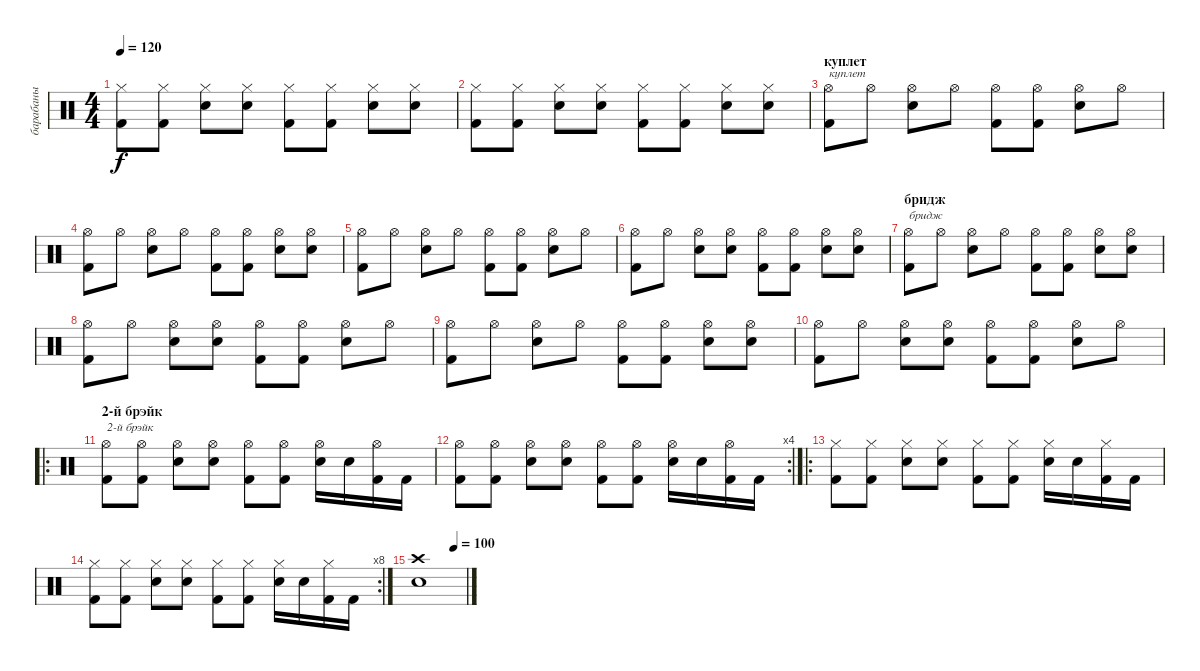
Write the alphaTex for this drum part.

\track ("барабаны" "барабаны") {instrument percussion}
\staff {score}
\articulation defaults
\ts (4 4)
\tempo 120
\clef neutral
\ks c
("Hi-Hat (closed)" "Kick (hit) 2").8{dy f} ("Hi-Hat (closed)" "Kick (hit) 2").8 ("Hi-Hat (closed)" "Snare (hit) 2").8 ("Hi-Hat (closed)" "Snare (hit) 2").8 ("Hi-Hat (closed)" "Kick (hit) 2").8 ("Hi-Hat (closed)" "Kick (hit) 2").8 ("Hi-Hat (closed)" "Snare (hit) 2").8 ("Hi-Hat (closed)" "Snare (hit) 2").8 |
("Hi-Hat (closed)" "Kick (hit) 2").8 ("Hi-Hat (closed)" "Kick (hit) 2").8 ("Hi-Hat (closed)" "Snare (hit) 2").8 ("Hi-Hat (closed)" "Snare (hit) 2").8 ("Hi-Hat (closed)" "Kick (hit) 2").8 ("Hi-Hat (closed)" "Kick (hit) 2").8 ("Hi-Hat (closed)" "Snare (hit) 2").8 ("Hi-Hat (closed)" "Snare (hit) 2").8 |
\section ("" "куплет")
("Hi-Hat (open)" "Kick (hit) 2").8{txt "куплет"} "Hi-Hat (open)".8 ("Hi-Hat (open)" "Snare (hit) 2").8 "Hi-Hat (open)".8 ("Hi-Hat (open)" "Kick (hit) 2").8 ("Hi-Hat (open)" "Kick (hit) 2").8 ("Hi-Hat (open)" "Snare (hit) 2").8 "Hi-Hat (open)".8 |
("Hi-Hat (open)" "Kick (hit) 2").8 "Hi-Hat (open)".8 ("Hi-Hat (open)" "Snare (hit) 2").8 "Hi-Hat (open)".8 ("Hi-Hat (open)" "Kick (hit) 2").8 ("Hi-Hat (open)" "Kick (hit) 2").8 ("Hi-Hat (open)" "Snare (hit) 2").8 ("Hi-Hat (open)" "Snare (hit) 2").8 |
("Hi-Hat (open)" "Kick (hit) 2").8 "Hi-Hat (open)".8 ("Hi-Hat (open)" "Snare (hit) 2").8 "Hi-Hat (open)".8 ("Hi-Hat (open)" "Kick (hit) 2").8 ("Hi-Hat (open)" "Kick (hit) 2").8 ("Hi-Hat (open)" "Snare (hit) 2").8 "Hi-Hat (open)".8 |
("Hi-Hat (open)" "Kick (hit) 2").8 "Hi-Hat (open)".8 ("Hi-Hat (open)" "Snare (hit) 2").8 ("Hi-Hat (open)" "Snare (hit) 2").8 ("Hi-Hat (open)" "Kick (hit) 2").8 ("Hi-Hat (open)" "Kick (hit) 2").8 ("Hi-Hat (open)" "Snare (hit) 2").8 ("Hi-Hat (open)" "Snare (hit) 2").8 |
\section ("" "бридж")
("Hi-Hat (open)" "Kick (hit) 2").8{txt "бридж"} "Hi-Hat (open)".8 ("Hi-Hat (open)" "Snare (hit) 2").8 "Hi-Hat (open)".8 ("Hi-Hat (open)" "Kick (hit) 2").8 ("Hi-Hat (open)" "Kick (hit) 2").8 ("Hi-Hat (open)" "Snare (hit) 2").8 ("Hi-Hat (open)" "Snare (hit) 2").8 |
("Hi-Hat (open)" "Kick (hit) 2").8 "Hi-Hat (open)".8 ("Hi-Hat (open)" "Snare (hit) 2").8 ("Hi-Hat (open)" "Snare (hit) 2").8 ("Hi-Hat (open)" "Kick (hit) 2").8 ("Hi-Hat (open)" "Kick (hit) 2").8 ("Hi-Hat (open)" "Snare (hit) 2").8 "Hi-Hat (open)".8 |
("Hi-Hat (open)" "Kick (hit) 2").8 "Hi-Hat (open)".8 ("Hi-Hat (open)" "Snare (hit) 2").8 "Hi-Hat (open)".8 ("Hi-Hat (open)" "Kick (hit) 2").8 ("Hi-Hat (open)" "Kick (hit) 2").8 ("Hi-Hat (open)" "Snare (hit) 2").8 ("Hi-Hat (open)" "Snare (hit) 2").8 |
("Hi-Hat (open)" "Kick (hit) 2").8 "Hi-Hat (open)".8 ("Hi-Hat (open)" "Snare (hit) 2").8 ("Hi-Hat (open)" "Snare (hit) 2").8 ("Hi-Hat (open)" "Kick (hit) 2").8 ("Hi-Hat (open)" "Kick (hit) 2").8 ("Hi-Hat (open)" "Snare (hit) 2").8 "Hi-Hat (open)".8 |
\ro
\section ("" "2-й брэйк")
("Hi-Hat (open)" "Kick (hit) 2").8{txt "2-й брэйк"} ("Hi-Hat (open)" "Kick (hit) 2").8 ("Hi-Hat (open)" "Snare (hit) 2").8 ("Hi-Hat (open)" "Snare (hit) 2").8 ("Hi-Hat (open)" "Kick (hit) 2").8 ("Hi-Hat (open)" "Kick (hit) 2").8 ("Hi-Hat (open)" "Snare (hit) 2").16 "Snare (hit) 2".16 ("Hi-Hat (open)" "Kick (hit) 2").16 "Kick (hit) 2".16 |
\rc 4
("Hi-Hat (open)" "Kick (hit) 2").8 ("Hi-Hat (open)" "Kick (hit) 2").8 ("Hi-Hat (open)" "Snare (hit) 2").8 ("Hi-Hat (open)" "Snare (hit) 2").8 ("Hi-Hat (open)" "Kick (hit) 2").8 ("Hi-Hat (open)" "Kick (hit) 2").8 ("Hi-Hat (open)" "Snare (hit) 2").16 "Snare (hit) 2".16 ("Hi-Hat (open)" "Kick (hit) 2").16 "Kick (hit) 2".16 |
\ro
("Hi-Hat (closed)" "Kick (hit) 2").8 ("Hi-Hat (closed)" "Kick (hit) 2").8 ("Hi-Hat (closed)" "Snare (hit) 2").8 ("Hi-Hat (closed)" "Snare (hit) 2").8 ("Hi-Hat (closed)" "Kick (hit) 2").8 ("Hi-Hat (closed)" "Kick (hit) 2").8 ("Hi-Hat (closed)" "Snare (hit) 2").16 "Snare (hit) 2".16 ("Hi-Hat (closed)" "Kick (hit) 2").16 "Kick (hit) 2".16 |
\rc 8
("Hi-Hat (closed)" "Kick (hit) 2").8 ("Hi-Hat (closed)" "Kick (hit) 2").8 ("Hi-Hat (closed)" "Snare (hit) 2").8 ("Hi-Hat (closed)" "Snare (hit) 2").8 ("Hi-Hat (closed)" "Kick (hit) 2").8 ("Hi-Hat (closed)" "Kick (hit) 2").8 ("Hi-Hat (closed)" "Snare (hit) 2").16 "Snare (hit) 2".16 ("Hi-Hat (closed)" "Kick (hit) 2").16 "Kick (hit) 2".16 |
\tempo (100 0.75)
("Crash high (hit)" "Snare (hit) 2").1
